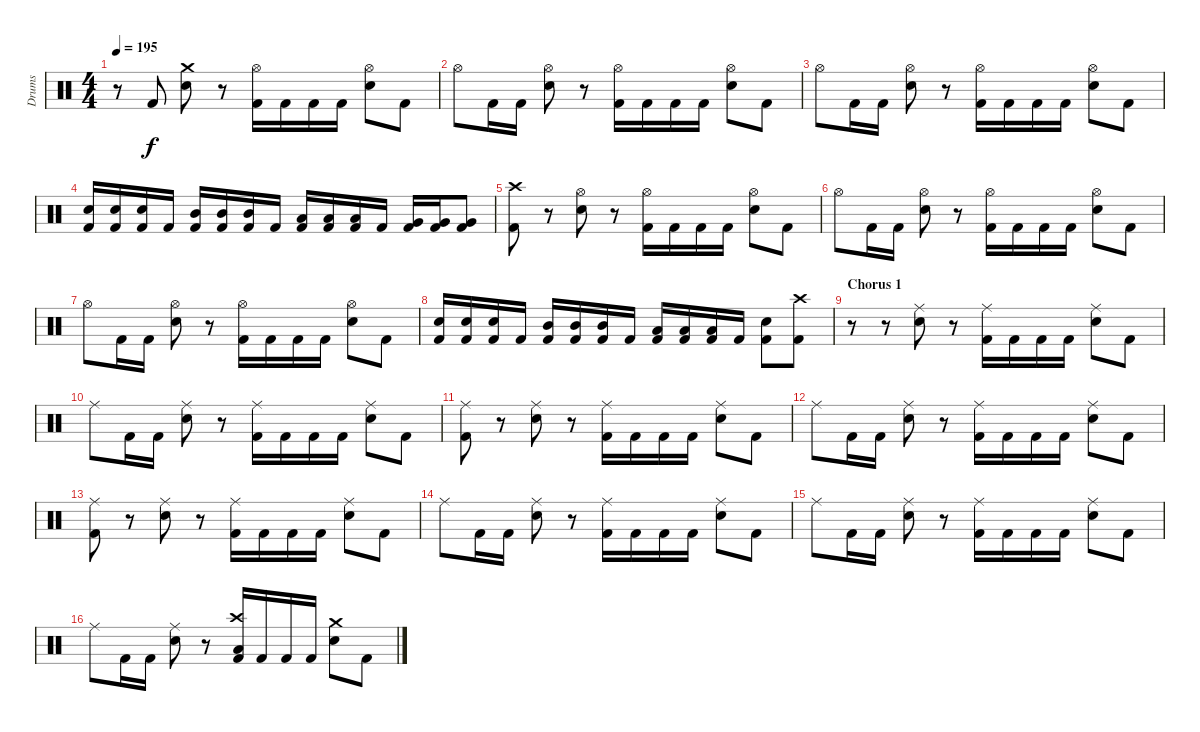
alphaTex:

\track ("Drums" "Drums") {instrument percussion}
\staff {score}
\articulation defaults
\ts (4 4)
\section ("" "")
\tempo 195
\clef neutral
\ks c
r.8{dy f} "Kick (hit) 2".8 ("Crash medium (hit)" "Snare (hit) 2").8 r.8 ("Hi-Hat (open)" "Kick (hit) 2").16 "Kick (hit) 2".16 "Kick (hit) 2".16 "Kick (hit) 2".16 ("Hi-Hat (open)" "Snare (hit) 2").8 "Kick (hit) 2".8 |
"Hi-Hat (open)".8 "Kick (hit) 2".16 "Kick (hit) 2".16 ("Hi-Hat (open)" "Snare (hit) 2").8 r.8 ("Hi-Hat (open)" "Kick (hit) 2").16 "Kick (hit) 2".16 "Kick (hit) 2".16 "Kick (hit) 2".16 ("Hi-Hat (open)" "Snare (hit) 2").8 "Kick (hit) 2".8 |
"Hi-Hat (open)".8 "Kick (hit) 2".16 "Kick (hit) 2".16 ("Hi-Hat (open)" "Snare (hit) 2").8 r.8 ("Hi-Hat (open)" "Kick (hit) 2").16 "Kick (hit) 2".16 "Kick (hit) 2".16 "Kick (hit) 2".16 ("Hi-Hat (open)" "Snare (hit) 2").8 "Kick (hit) 2".8 |
("Snare (hit) 2" "Kick (hit) 2").16 ("Snare (hit) 2" "Kick (hit) 2").16 ("Snare (hit) 2" "Kick (hit) 2").16 "Kick (hit) 2".16 ("Mid Tom (hit)" "Kick (hit) 2").16 ("Mid Tom (hit)" "Kick (hit) 2").16 ("Mid Tom (hit)" "Kick (hit) 2").16 "Kick (hit) 2".16 ("Low Tom (hit)" "Kick (hit) 2").16 ("Low Tom (hit)" "Kick (hit) 2").16 ("Low Tom (hit)" "Kick (hit) 2").16 "Kick (hit) 2".16 ("Very Low Tom (hit)" "Kick (hit) 2").16 ("Very Low Tom (hit)" "Kick (hit) 2").16 ("Very Low Tom (hit)" "Kick (hit) 2").8 |
("Crash high (hit)" "Kick (hit) 2").8 r.8 ("Hi-Hat (open)" "Snare (hit) 2").8 r.8 ("Hi-Hat (open)" "Kick (hit) 2").16 "Kick (hit) 2".16 "Kick (hit) 2".16 "Kick (hit) 2".16 ("Hi-Hat (open)" "Snare (hit) 2").8 "Kick (hit) 2".8 |
"Hi-Hat (open)".8 "Kick (hit) 2".16 "Kick (hit) 2".16 ("Hi-Hat (open)" "Snare (hit) 2").8 r.8 ("Hi-Hat (open)" "Kick (hit) 2").16 "Kick (hit) 2".16 "Kick (hit) 2".16 "Kick (hit) 2".16 ("Hi-Hat (open)" "Snare (hit) 2").8 "Kick (hit) 2".8 |
"Hi-Hat (open)".8 "Kick (hit) 2".16 "Kick (hit) 2".16 ("Hi-Hat (open)" "Snare (hit) 2").8 r.8 ("Hi-Hat (open)" "Kick (hit) 2").16 "Kick (hit) 2".16 "Kick (hit) 2".16 "Kick (hit) 2".16 ("Hi-Hat (open)" "Snare (hit) 2").8 "Kick (hit) 2".8 |
("Snare (hit) 2" "Kick (hit) 2").16 ("Snare (hit) 2" "Kick (hit) 2").16 ("Snare (hit) 2" "Kick (hit) 2").16 "Kick (hit) 2".16 ("Mid Tom (hit)" "Kick (hit) 2").16 ("Mid Tom (hit)" "Kick (hit) 2").16 ("Mid Tom (hit)" "Kick (hit) 2").16 "Kick (hit) 2".16 ("Low Tom (hit)" "Kick (hit) 2").16 ("Low Tom (hit)" "Kick (hit) 2").16 ("Low Tom (hit)" "Kick (hit) 2").16 "Kick (hit) 2".16 ("Snare (hit) 2" "Kick (hit) 2").8 ("Crash high (hit)" "Kick (hit) 2").8 |
\section ("" "Chorus 1")
r.8 r.8 ("Ride (middle)" "Snare (hit) 2").8 r.8 ("Ride (middle)" "Kick (hit) 2").16 "Kick (hit) 2".16 "Kick (hit) 2".16 "Kick (hit) 2".16 ("Ride (middle)" "Snare (hit) 2").8 "Kick (hit) 2".8 |
"Ride (middle)".8 "Kick (hit) 2".16 "Kick (hit) 2".16 ("Ride (middle)" "Snare (hit) 2").8 r.8 ("Ride (middle)" "Kick (hit) 2").16 "Kick (hit) 2".16 "Kick (hit) 2".16 "Kick (hit) 2".16 ("Ride (middle)" "Snare (hit) 2").8 "Kick (hit) 2".8 |
("Ride (middle)" "Kick (hit) 2").8 r.8 ("Ride (middle)" "Snare (hit) 2").8 r.8 ("Ride (middle)" "Kick (hit) 2").16 "Kick (hit) 2".16 "Kick (hit) 2".16 "Kick (hit) 2".16 ("Ride (middle)" "Snare (hit) 2").8 "Kick (hit) 2".8 |
"Ride (middle)".8 "Kick (hit) 2".16 "Kick (hit) 2".16 ("Ride (middle)" "Snare (hit) 2").8 r.8 ("Ride (middle)" "Kick (hit) 2").16 "Kick (hit) 2".16 "Kick (hit) 2".16 "Kick (hit) 2".16 ("Ride (middle)" "Snare (hit) 2").8 "Kick (hit) 2".8 |
("Ride (middle)" "Kick (hit) 2").8 r.8 ("Ride (middle)" "Snare (hit) 2").8 r.8 ("Ride (middle)" "Kick (hit) 2").16 "Kick (hit) 2".16 "Kick (hit) 2".16 "Kick (hit) 2".16 ("Ride (middle)" "Snare (hit) 2").8 "Kick (hit) 2".8 |
"Ride (middle)".8 "Kick (hit) 2".16 "Kick (hit) 2".16 ("Ride (middle)" "Snare (hit) 2").8 r.8 ("Ride (middle)" "Kick (hit) 2").16 "Kick (hit) 2".16 "Kick (hit) 2".16 "Kick (hit) 2".16 ("Ride (middle)" "Snare (hit) 2").8 "Kick (hit) 2".8 |
"Ride (middle)".8 "Kick (hit) 2".16 "Kick (hit) 2".16 ("Ride (middle)" "Snare (hit) 2").8 r.8 ("Ride (middle)" "Kick (hit) 2").16 "Kick (hit) 2".16 "Kick (hit) 2".16 "Kick (hit) 2".16 ("Ride (middle)" "Snare (hit) 2").8 "Kick (hit) 2".8 |
"Ride (middle)".8 "Kick (hit) 2".16 "Kick (hit) 2".16 ("Ride (middle)" "Snare (hit) 2").8 r.8 ("Crash high (hit)" "Low Floor Tom (hit)" "Kick (hit) 2").16 "Kick (hit) 2".16 "Kick (hit) 2".16 "Kick (hit) 2".16 ("Crash medium (hit)" "Snare (hit) 2").8 "Kick (hit) 2".8
